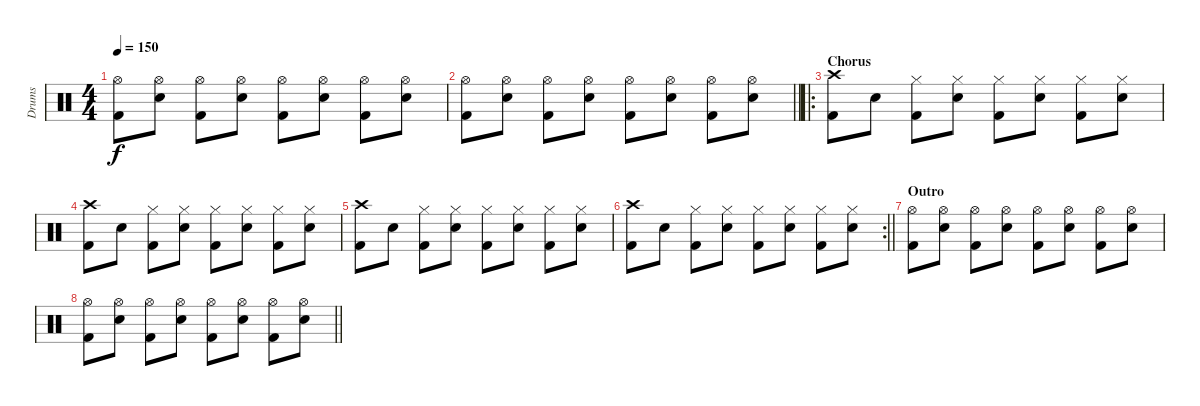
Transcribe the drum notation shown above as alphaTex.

\track ("Drums" "Drums") {instrument percussion}
\staff {score}
\articulation defaults
\ts (4 4)
\tempo 150
\clef neutral
\ks c
("Hi-Hat (open)" "Kick (hit) 2").8{dy f} ("Hi-Hat (open)" "Electric Snare (hit)").8 ("Hi-Hat (open)" "Kick (hit) 2").8 ("Hi-Hat (open)" "Electric Snare (hit)").8 ("Hi-Hat (open)" "Kick (hit) 2").8 ("Hi-Hat (open)" "Electric Snare (hit)").8 ("Hi-Hat (open)" "Kick (hit) 2").8 ("Hi-Hat (open)" "Electric Snare (hit)").8 |
\barLineRight lightlight
("Hi-Hat (open)" "Kick (hit) 2").8 ("Hi-Hat (open)" "Electric Snare (hit)").8 ("Hi-Hat (open)" "Kick (hit) 2").8 ("Hi-Hat (open)" "Electric Snare (hit)").8 ("Hi-Hat (open)" "Kick (hit) 2").8 ("Hi-Hat (open)" "Electric Snare (hit)").8 ("Hi-Hat (open)" "Kick (hit) 2").8 ("Hi-Hat (open)" "Electric Snare (hit)").8 |
\ro
\section ("" "Chorus")
("Crash high (hit)" "Kick (hit) 2").8 "Electric Snare (hit)".8 ("Hi-Hat (closed)" "Kick (hit) 2").8 ("Hi-Hat (closed)" "Electric Snare (hit)").8 ("Hi-Hat (closed)" "Kick (hit) 2").8 ("Hi-Hat (closed)" "Electric Snare (hit)").8 ("Hi-Hat (closed)" "Kick (hit) 2").8 ("Hi-Hat (closed)" "Electric Snare (hit)").8 |
("Crash high (hit)" "Kick (hit) 2").8 "Electric Snare (hit)".8 ("Hi-Hat (closed)" "Kick (hit) 2").8 ("Hi-Hat (closed)" "Electric Snare (hit)").8 ("Hi-Hat (closed)" "Kick (hit) 2").8 ("Hi-Hat (closed)" "Electric Snare (hit)").8 ("Hi-Hat (closed)" "Kick (hit) 2").8 ("Hi-Hat (closed)" "Electric Snare (hit)").8 |
("Crash high (hit)" "Kick (hit) 2").8 "Electric Snare (hit)".8 ("Hi-Hat (closed)" "Kick (hit) 2").8 ("Hi-Hat (closed)" "Electric Snare (hit)").8 ("Hi-Hat (closed)" "Kick (hit) 2").8 ("Hi-Hat (closed)" "Electric Snare (hit)").8 ("Hi-Hat (closed)" "Kick (hit) 2").8 ("Hi-Hat (closed)" "Electric Snare (hit)").8 |
\rc 2
\barLineRight lightlight
("Crash high (hit)" "Kick (hit) 2").8 "Electric Snare (hit)".8 ("Hi-Hat (closed)" "Kick (hit) 2").8 ("Hi-Hat (closed)" "Electric Snare (hit)").8 ("Hi-Hat (closed)" "Kick (hit) 2").8 ("Hi-Hat (closed)" "Electric Snare (hit)").8 ("Hi-Hat (closed)" "Kick (hit) 2").8 ("Hi-Hat (closed)" "Electric Snare (hit)").8 |
\section ("" "Outro")
("Hi-Hat (open)" "Kick (hit) 2").8 ("Hi-Hat (open)" "Electric Snare (hit)").8 ("Hi-Hat (open)" "Kick (hit) 2").8 ("Hi-Hat (open)" "Electric Snare (hit)").8 ("Hi-Hat (open)" "Kick (hit) 2").8 ("Hi-Hat (open)" "Electric Snare (hit)").8 ("Hi-Hat (open)" "Kick (hit) 2").8 ("Hi-Hat (open)" "Electric Snare (hit)").8 |
\barLineRight lightlight
("Hi-Hat (open)" "Kick (hit) 2").8 ("Hi-Hat (open)" "Electric Snare (hit)").8 ("Hi-Hat (open)" "Kick (hit) 2").8 ("Hi-Hat (open)" "Electric Snare (hit)").8 ("Hi-Hat (open)" "Kick (hit) 2").8 ("Hi-Hat (open)" "Electric Snare (hit)").8 ("Hi-Hat (open)" "Kick (hit) 2").8 ("Hi-Hat (open)" "Electric Snare (hit)").8
